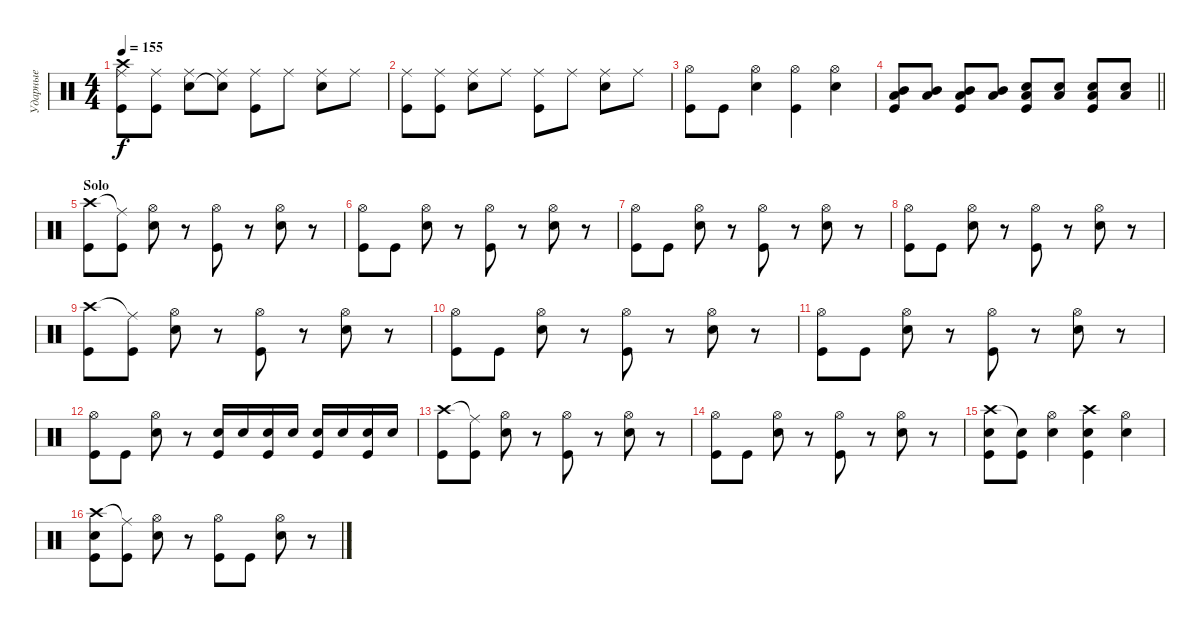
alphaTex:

\track ("Ударные" "Ударные") {instrument percussion}
\staff {score}
\articulation defaults
\ts (4 4)
\tempo 155
\clef neutral
\ks c
("Ride (middle)" "Crash high (hit)" "Kick (hit)").8{dy f} ("Ride (middle)" "Kick (hit)").8 ("Ride (middle)" "Snare (hit) 2").8 ("Ride (middle)" "Snare (hit)"{t}).8 ("Ride (middle)" "Kick (hit)").8 "Ride (middle)".8 ("Ride (middle)" "Snare (hit) 2").8 "Ride (middle)".8 |
("Ride (middle)" "Kick (hit)").8 ("Ride (middle)" "Kick (hit)").8 ("Ride (middle)" "Snare (hit) 2").8 "Ride (middle)".8 ("Ride (middle)" "Kick (hit)").8 "Ride (middle)".8 ("Ride (middle)" "Snare (hit) 2").8 "Ride (middle)".8 |
("Hi-Hat (open)" "Kick (hit)").8 "Kick (hit)".8 ("Hi-Hat (open)" "Snare (hit) 2").4 ("Hi-Hat (open)" "Kick (hit)").4 ("Hi-Hat (open)" "Snare (hit) 2").4 |
\barLineRight lightlight
("Mid Tom (hit)" "Low Tom (hit)" "Kick (hit)").8 ("Mid Tom (hit)" "Low Tom (hit)").8 ("Mid Tom (hit)" "Low Tom (hit)" "Kick (hit)").8 ("Mid Tom (hit)" "Low Tom (hit)").8 ("Snare (hit) 2" "Low Tom (hit)" "Kick (hit)").8 ("Snare (hit) 2" "Low Tom (hit)").8 ("Snare (hit) 2" "Low Tom (hit)" "Kick (hit)").8 ("Snare (hit) 2" "Low Tom (hit)").8 |
\section ("" "Solo")
("Crash high (hit)" "Kick (hit)").8 ("Ride (middle)"{t} "Kick (hit)").8 ("Hi-Hat (open)" "Snare (hit) 2").8 r.8 ("Hi-Hat (open)" "Kick (hit)").8 r.8 ("Hi-Hat (open)" "Snare (hit) 2").8 r.8 |
("Hi-Hat (open)" "Kick (hit)").8 "Kick (hit)".8 ("Hi-Hat (open)" "Snare (hit) 2").8 r.8 ("Hi-Hat (open)" "Kick (hit)").8 r.8 ("Hi-Hat (open)" "Snare (hit) 2").8 r.8 |
("Hi-Hat (open)" "Kick (hit)").8 "Kick (hit)".8 ("Hi-Hat (open)" "Snare (hit) 2").8 r.8 ("Hi-Hat (open)" "Kick (hit)").8 r.8 ("Hi-Hat (open)" "Snare (hit) 2").8 r.8 |
("Hi-Hat (open)" "Kick (hit)").8 "Kick (hit)".8 ("Hi-Hat (open)" "Snare (hit) 2").8 r.8 ("Hi-Hat (open)" "Kick (hit)").8 r.8 ("Hi-Hat (open)" "Snare (hit) 2").8 r.8 |
("Crash high (hit)" "Kick (hit)").8 ("Ride (middle)"{t} "Kick (hit)").8 ("Hi-Hat (open)" "Snare (hit) 2").8 r.8 ("Hi-Hat (open)" "Kick (hit)").8 r.8 ("Hi-Hat (open)" "Snare (hit) 2").8 r.8 |
("Hi-Hat (open)" "Kick (hit)").8 "Kick (hit)".8 ("Hi-Hat (open)" "Snare (hit) 2").8 r.8 ("Hi-Hat (open)" "Kick (hit)").8 r.8 ("Hi-Hat (open)" "Snare (hit) 2").8 r.8 |
("Hi-Hat (open)" "Kick (hit)").8 "Kick (hit)".8 ("Hi-Hat (open)" "Snare (hit) 2").8 r.8 ("Hi-Hat (open)" "Kick (hit)").8 r.8 ("Hi-Hat (open)" "Snare (hit) 2").8 r.8 |
("Hi-Hat (open)" "Kick (hit)").8 "Kick (hit)".8 ("Hi-Hat (open)" "Snare (hit) 2").8 r.8 ("Snare (hit) 2" "Kick (hit)").16 "Snare (hit) 2".16 ("Snare (hit) 2" "Kick (hit)").16 "Snare (hit) 2".16 ("Snare (hit) 2" "Kick (hit)").16 "Snare (hit) 2".16 ("Snare (hit) 2" "Kick (hit)").16 "Snare (hit) 2".16 |
("Crash high (hit)" "Kick (hit)").8 ("Ride (middle)"{t} "Kick (hit)").8 ("Hi-Hat (open)" "Snare (hit) 2").8 r.8 ("Hi-Hat (open)" "Kick (hit)").8 r.8 ("Hi-Hat (open)" "Snare (hit) 2").8 r.8 |
("Hi-Hat (open)" "Kick (hit)").8 "Kick (hit)".8 ("Hi-Hat (open)" "Snare (hit) 2").8 r.8 ("Hi-Hat (open)" "Kick (hit)").8 r.8 ("Hi-Hat (open)" "Snare (hit) 2").8 r.8 |
("Crash high (hit)" "Snare (hit) 2" "Kick (hit)").8 ("Snare (hit)"{t} "Kick (hit)").8 ("Hi-Hat (open)" "Snare (hit) 2").4 ("Crash high (hit)" "Snare (hit) 2" "Kick (hit)").4 ("Hi-Hat (open)" "Snare (hit) 2").4 |
("Crash high (hit)" "Snare (hit) 2" "Kick (hit)").8 ("Ride (middle)"{t} "Kick (hit)").8 ("Hi-Hat (open)" "Snare (hit) 2").8 r.8 ("Hi-Hat (open)" "Kick (hit)").8 "Kick (hit)".8 ("Hi-Hat (open)" "Snare (hit) 2").8 r.8
